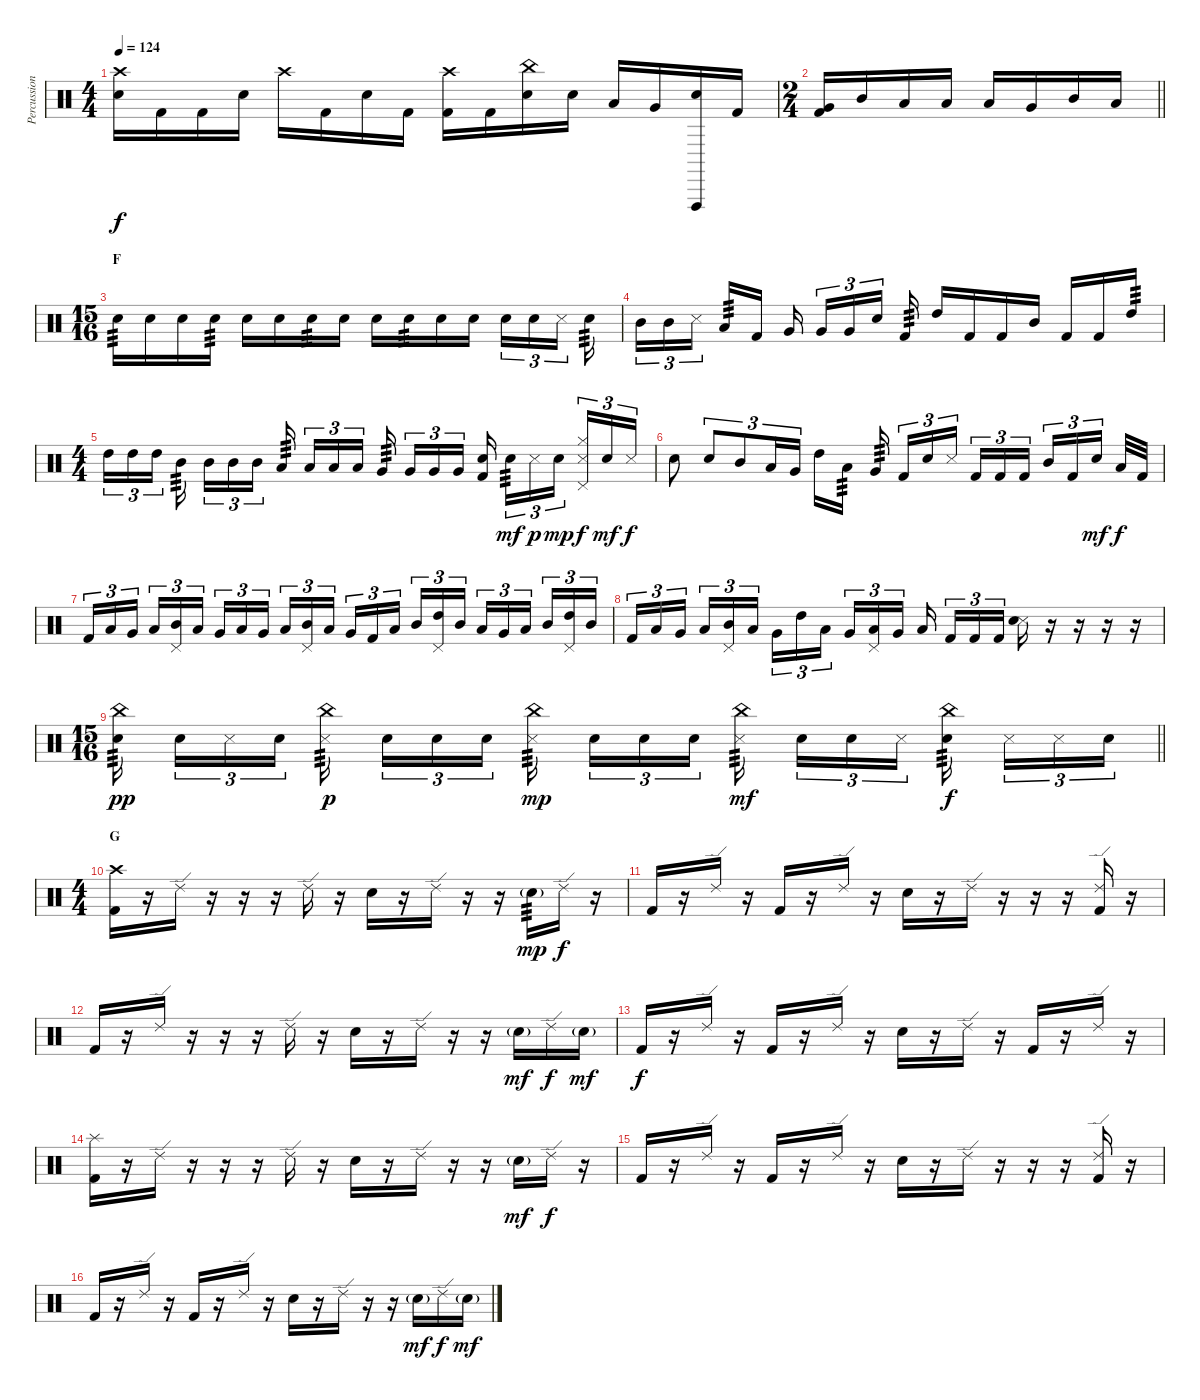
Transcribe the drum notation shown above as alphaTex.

\track ("Percussion" "Percussion") {instrument percussion}
\staff {score}
\articulation defaults
\ts (4 4)
\tempo 124
\clef neutral
\ks c
("Crash high (hit)" "Snare (hit) 2").16{dy f} "Kick (hit) 2".16 "Kick (hit) 2".16 "Snare (hit) 2".16 "Crash high (hit)".16 "Kick (hit) 2".16 "Snare (hit) 2".16 "Kick (hit) 2".16 ("Crash high (hit)" "Kick (hit) 2").16 "Kick (hit) 2".16 ("China (hit)" "Snare (hit) 2").16 "Snare (hit) 2".16 "Low Tom (hit)".16 "Very Low Tom (hit)".16 ("Vibraslap (hit)" "Snare (hit) 2").16 "Kick (hit) 2".16 |
\ts (2 4)
\barLineRight lightlight
("Very Low Tom (hit)" "Kick (hit) 2").16 "Mid Tom (hit)".16 "Low Tom (hit)".16 "Low Floor Tom (hit)".16 "Low Tom (hit)".16 "Very Low Tom (hit)".16 "Mid Tom (hit)".16 "Low Tom (hit)".16 |
\ts (15 16)
\section ("" "F")
"Snare (hit) 2".16{tp 3} "Snare (hit) 2".16 "Snare (hit) 2".16 "Snare (hit) 2".16{tp 3} "Snare (hit) 2".16 "Snare (hit) 2".16 "Snare (hit) 2".16{tp 3} "Snare (hit) 2".16 "Snare (hit) 2".16 "Snare (hit) 2".16{tp 3} "Snare (hit) 2".16 "Snare (hit) 2".16 "Snare (hit) 2".16{tu (3 2)} "Snare (hit) 2".16{tu (3 2)} "Metronome (hit)".16{tu (3 2) beam splitsecondary} "Snare (hit) 2".16{tp 3} |
"Mid Tom (hit)".16{tu (3 2)} "Mid Tom (hit)".16{tu (3 2)} "Metronome (hit)".16{tu (3 2) beam splitsecondary} "Low Tom (hit)".16{tp 3} "Kick (hit) 2".16 "Very Low Tom (hit)".16{beam splitsecondary} "Very Low Tom (hit)".16{tu (3 2)} "Very Low Tom (hit)".16{tu (3 2)} "Snare (hit) 2".16{tu (3 2) beam splitsecondary} "Kick (hit) 2".16{tp 3} "High Tom (hit)".16 "Kick (hit) 2".16 "Kick (hit) 2".16 "Mid Tom (hit)".16 "Kick (hit) 2".16 "Kick (hit) 2".16 "High Tom (hit)".16{tp 3} |
\ts (4 4)
"High Tom (hit)".16{tu (3 2)} "High Tom (hit)".16{tu (3 2)} "High Tom (hit)".16{tu (3 2) beam splitsecondary} "Mid Tom (hit)".16{tp 3 beam splitsecondary} "Mid Tom (hit)".16{tu (3 2)} "Mid Tom (hit)".16{tu (3 2)} "Mid Tom (hit)".16{tu (3 2) beam splitsecondary} "Low Tom (hit)".16{tp 3 beam splitsecondary} "Low Tom (hit)".16{tu (3 2)} "Low Tom (hit)".16{tu (3 2)} "Low Tom (hit)".16{tu (3 2)} "Very Low Tom (hit)".16{tp 3 beam splitsecondary} "Very Low Tom (hit)".16{tu (3 2)} "Very Low Tom (hit)".16{tu (3 2)} "Very Low Tom (hit)".16{tu (3 2) beam splitsecondary} ("Snare (hit)" "Kick (hit) 2").16 "Snare (hit) 2".16{tu (3 2) tp 3 dy mf} "Metronome (hit)".16{tu (3 2) dy p} "Snare (hit) 2".16{tu (3 2) dy mp beam splitsecondary} ("Hi-Hat (closed)" "Pedal Hi-Hat (hit)" "Metronome (hit)").16{tu (3 2) dy f} "Snare (hit) 2".16{tu (3 2) dy mf} "Metronome (hit)".16{tu (3 2) dy f} |
"Snare (hit) 2".8 "Snare (hit) 2".8{tu (3 2)} "Mid Tom (hit)".8{tu (3 2)} "Low Tom (hit)".16{tu (3 2)} "Very Low Tom (hit)".16{tu (3 2) beam splitsecondary} "High Tom (hit)".16 "Low Tom (hit)".16{tp 3} "Very Low Tom (hit)".16{tp 3 beam splitsecondary} "Kick (hit) 2".16{tu (3 2)} "Snare (hit) 2".16{tu (3 2)} "Metronome (hit)".16{tu (3 2) beam splitsecondary} "Kick (hit) 2".16{tu (3 2)} "Kick (hit) 2".16{tu (3 2)} "Kick (hit) 2".16{tu (3 2) beam splitsecondary} "Mid Tom (hit)".16{tu (3 2)} "Kick (hit) 2".16{tu (3 2)} "Snare (hit) 2".16{tu (3 2) dy mf beam splitsecondary} "Low Tom (hit)".32{dy f} "Kick (hit) 2".32 |
"Kick (hit) 2".16{tu (3 2)} "Low Floor Tom (hit)".16{tu (3 2)} "Very Low Tom (hit)".16{tu (3 2) beam splitsecondary} "Low Tom (hit)".16{tu (3 2)} ("Pedal Hi-Hat (hit)" "Mid Tom (hit)").16{tu (3 2)} "Low Tom (hit)".16{tu (3 2)} "Very Low Tom (hit)".16{tu (3 2)} "Low Floor Tom (hit)".16{tu (3 2)} "Very Low Tom (hit)".16{tu (3 2) beam splitsecondary} "Low Tom (hit)".16{tu (3 2)} ("Pedal Hi-Hat (hit)" "Mid Tom (hit)").16{tu (3 2)} "Low Tom (hit)".16{tu (3 2)} "Very Low Tom (hit)".16{tu (3 2)} "Kick (hit) 2".16{tu (3 2)} "Low Tom (hit)".16{tu (3 2) beam splitsecondary} "Mid Tom (hit)".16{tu (3 2)} ("Pedal Hi-Hat (hit)" "High Tom (hit)").16{tu (3 2)} "Mid Tom (hit)".16{tu (3 2)} "Low Tom (hit)".16{tu (3 2)} "Very Low Tom (hit)".16{tu (3 2)} "Low Tom (hit)".16{tu (3 2) beam splitsecondary} "Mid Tom (hit)".16{tu (3 2)} ("Pedal Hi-Hat (hit)" "High Tom (hit)").16{tu (3 2)} "Mid Tom (hit)".16{tu (3 2)} |
"Kick (hit) 2".16{tu (3 2)} "Low Floor Tom (hit)".16{tu (3 2)} "Very Low Tom (hit)".16{tu (3 2) beam splitsecondary} "Low Tom (hit)".16{tu (3 2)} ("Pedal Hi-Hat (hit)" "Mid Tom (hit)").16{tu (3 2)} "Low Tom (hit)".16{tu (3 2)} "Very Low Tom (hit)".16{tu (3 2)} "High Tom (hit)".16{tu (3 2)} "Low Floor Tom (hit)".16{tu (3 2) beam splitsecondary} "Very Low Tom (hit)".16{tu (3 2)} ("Pedal Hi-Hat (hit)" "Low Tom (hit)").16{tu (3 2)} "Very Low Tom (hit)".16{tu (3 2)} "Low Floor Tom (hit)".16{beam splitsecondary} "Kick (hit) 2".16{tu (3 2)} "Kick (hit) 2".16{tu (3 2)} "Kick (hit) 2".16{tu (3 2) beam splitsecondary} ("Metronome (hit)" "Snare (hit) 2").16{bu 60} r.16 r.16 r.16 r.16 |
\ts (15 16)
\barLineRight lightlight
("China (hit)" "Snare (hit) 2").16{tp 3 dy pp beam splitsecondary} "Snare (hit) 2".16{tu (3 2)} "Metronome (hit)".16{tu (3 2)} "Snare (hit) 2".16{tu (3 2)} ("China (hit)" "Metronome (hit)").16{tp 3 dy p beam splitsecondary} "Snare (hit) 2".16{tu (3 2)} "Snare (hit) 2".16{tu (3 2)} "Snare (hit) 2".16{tu (3 2)} ("China (hit)" "Metronome (hit)").16{tp 3 dy mp beam splitsecondary} "Snare (hit) 2".16{tu (3 2)} "Snare (hit) 2".16{tu (3 2)} "Snare (hit) 2".16{tu (3 2)} ("China (hit)" "Metronome (hit)").16{tp 3 dy mf beam splitsecondary} "Snare (hit) 2".16{tu (3 2)} "Snare (hit) 2".16{tu (3 2)} "Metronome (hit)".16{tu (3 2)} ("China (hit)" "Snare (hit) 2").16{tp 3 dy f beam splitsecondary} "Metronome (hit)".16{tu (3 2)} "Metronome (hit)".16{tu (3 2)} "Snare (hit) 2".16{tu (3 2)} |
\ts (4 4)
\section ("" "G")
("Crash high (hit)" "Kick (hit) 2").16 r.16 "Ride (edge) 2".16 r.16 r.16 r.16 "Ride (edge) 2".16 r.16 "Snare (hit) 2".16 r.16 "Ride (edge) 2".16 r.16 r.16 "Snare (hit) 2"{g}.16{tp 3 dy mp} "Ride (edge) 2".16{dy f} r.16 |
"Kick (hit) 2".16 r.16 "Ride (edge) 2".16 r.16 "Kick (hit) 2".16 r.16 "Ride (edge) 2".16 r.16 "Snare (hit) 2".16 r.16 "Ride (edge) 2".16 r.16 r.16 r.16 ("Ride (edge) 2" "Kick (hit) 2").16 r.16 |
"Kick (hit) 2".16 r.16 "Ride (edge) 2".16 r.16 r.16 r.16 "Ride (edge) 2".16 r.16 "Snare (hit) 2".16 r.16 "Ride (edge) 2".16 r.16 r.16 "Snare (hit) 2"{g}.16{dy mf} "Ride (edge) 2".16{dy f} "Snare (hit) 2"{g}.16{dy mf} |
"Kick (hit) 2".16{dy f} r.16 "Ride (edge) 2".16 r.16 "Kick (hit) 2".16 r.16 "Ride (edge) 2".16 r.16 "Snare (hit) 2".16 r.16 "Ride (edge) 2".16 r.16 "Kick (hit) 2".16 r.16 "Ride (edge) 2".16 r.16 |
("Splash (hit)" "Kick (hit) 2").16 r.16 "Ride (edge) 2".16 r.16 r.16 r.16 "Ride (edge) 2".16 r.16 "Snare (hit) 2".16 r.16 "Ride (edge) 2".16 r.16 r.16 "Snare (hit) 2"{g}.16{dy mf} "Ride (edge) 2".16{dy f} r.16 |
"Kick (hit) 2".16 r.16 "Ride (edge) 2".16 r.16 "Kick (hit) 2".16 r.16 "Ride (edge) 2".16 r.16 "Snare (hit) 2".16 r.16 "Ride (edge) 2".16 r.16 r.16 r.16 ("Ride (edge) 2" "Kick (hit) 2").16 r.16 |
"Kick (hit) 2".16 r.16 "Ride (edge) 2".16 r.16 "Kick (hit) 2".16 r.16 "Ride (edge) 2".16 r.16 "Snare (hit) 2".16 r.16 "Ride (edge) 2".16 r.16 r.16 "Snare (hit) 2"{g}.16{dy mf} "Ride (edge) 2".16{dy f} "Snare (hit) 2"{g}.16{dy mf}
